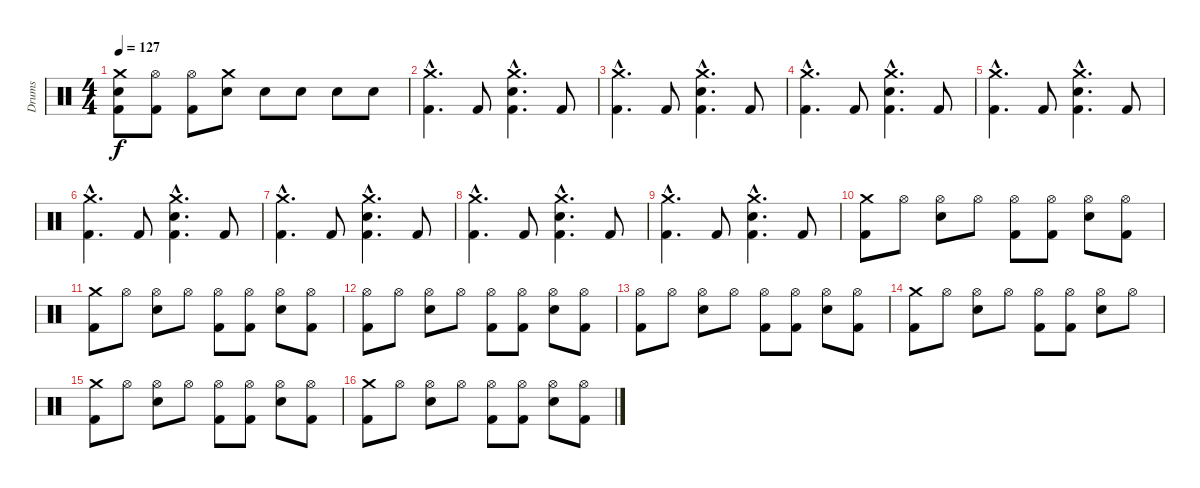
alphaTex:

\track ("Drums" "Drums") {instrument percussion}
\staff {score}
\articulation defaults
\ts (4 4)
\tempo 127
\clef neutral
\ks c
("Kick (hit) 2" "Electric Snare (hit)" "Crash medium (hit)").8{dy f} ("Kick (hit) 2" "Hi-Hat (open)").8 ("Kick (hit) 2" "Hi-Hat (open)").8 ("Electric Snare (hit)" "Crash medium (hit)").8 "Electric Snare (hit)".8 "Electric Snare (hit)".8 "Electric Snare (hit)".8 "Electric Snare (hit)".8 |
("Kick (hit) 2"{hac} "Crash medium (hit)"{hac}).4{d} "Kick (hit) 2".8 ("Kick (hit) 2"{hac} "Electric Snare (hit)"{hac} "Crash medium (hit)"{hac}).4{d} "Kick (hit) 2".8 |
("Kick (hit) 2"{hac} "Crash medium (hit)"{hac}).4{d} "Kick (hit) 2".8 ("Kick (hit) 2"{hac} "Electric Snare (hit)"{hac} "Crash medium (hit)"{hac}).4{d} "Kick (hit) 2".8 |
("Kick (hit) 2"{hac} "Crash medium (hit)"{hac}).4{d} "Kick (hit) 2".8 ("Kick (hit) 2"{hac} "Electric Snare (hit)"{hac} "Crash medium (hit)"{hac}).4{d} "Kick (hit) 2".8 |
("Kick (hit) 2"{hac} "Crash medium (hit)"{hac}).4{d} "Kick (hit) 2".8 ("Kick (hit) 2"{hac} "Electric Snare (hit)"{hac} "Crash medium (hit)"{hac}).4{d} "Kick (hit) 2".8 |
("Kick (hit) 2"{hac} "Crash medium (hit)"{hac}).4{d} "Kick (hit) 2".8 ("Kick (hit) 2"{hac} "Electric Snare (hit)"{hac} "Crash medium (hit)"{hac}).4{d} "Kick (hit) 2".8 |
("Kick (hit) 2"{hac} "Crash medium (hit)"{hac}).4{d} "Kick (hit) 2".8 ("Kick (hit) 2"{hac} "Electric Snare (hit)"{hac} "Crash medium (hit)"{hac}).4{d} "Kick (hit) 2".8 |
("Kick (hit) 2"{hac} "Crash medium (hit)"{hac}).4{d} "Kick (hit) 2".8 ("Kick (hit) 2"{hac} "Electric Snare (hit)"{hac} "Crash medium (hit)"{hac}).4{d} "Kick (hit) 2".8 |
("Kick (hit) 2"{hac} "Crash medium (hit)"{hac}).4{d} "Kick (hit) 2".8 ("Kick (hit) 2"{hac} "Electric Snare (hit)"{hac} "Crash medium (hit)"{hac}).4{d} "Kick (hit) 2".8 |
("Kick (hit) 2" "Crash medium (hit)").8 "Hi-Hat (open)".8 ("Electric Snare (hit)" "Hi-Hat (open)").8 "Hi-Hat (open)".8 ("Kick (hit) 2" "Hi-Hat (open)").8 ("Kick (hit) 2" "Hi-Hat (open)").8 ("Electric Snare (hit)" "Hi-Hat (open)").8 ("Kick (hit) 2" "Hi-Hat (open)").8 |
("Kick (hit) 2" "Crash medium (hit)").8 "Hi-Hat (open)".8 ("Electric Snare (hit)" "Hi-Hat (open)").8 "Hi-Hat (open)".8 ("Kick (hit) 2" "Hi-Hat (open)").8 ("Kick (hit) 2" "Hi-Hat (open)").8 ("Electric Snare (hit)" "Hi-Hat (open)").8 ("Kick (hit) 2" "Hi-Hat (open)").8 |
("Kick (hit) 2" "Hi-Hat (open)").8 "Hi-Hat (open)".8 ("Electric Snare (hit)" "Hi-Hat (open)").8 "Hi-Hat (open)".8 ("Kick (hit) 2" "Hi-Hat (open)").8 ("Kick (hit) 2" "Hi-Hat (open)").8 ("Electric Snare (hit)" "Hi-Hat (open)").8 ("Kick (hit) 2" "Hi-Hat (open)").8 |
("Kick (hit) 2" "Hi-Hat (open)").8 "Hi-Hat (open)".8 ("Electric Snare (hit)" "Hi-Hat (open)").8 "Hi-Hat (open)".8 ("Kick (hit) 2" "Hi-Hat (open)").8 ("Kick (hit) 2" "Hi-Hat (open)").8 ("Electric Snare (hit)" "Hi-Hat (open)").8 ("Kick (hit) 2" "Hi-Hat (open)").8 |
("Kick (hit) 2" "Crash medium (hit)").8 "Hi-Hat (open)".8 ("Electric Snare (hit)" "Hi-Hat (open)").8 "Hi-Hat (open)".8 ("Kick (hit) 2" "Hi-Hat (open)").8 ("Kick (hit) 2" "Hi-Hat (open)").8 ("Electric Snare (hit)" "Hi-Hat (open)").8 "Hi-Hat (open)".8 |
("Kick (hit) 2" "Crash medium (hit)").8 "Hi-Hat (open)".8 ("Electric Snare (hit)" "Hi-Hat (open)").8 "Hi-Hat (open)".8 ("Kick (hit) 2" "Hi-Hat (open)").8 ("Kick (hit) 2" "Hi-Hat (open)").8 ("Electric Snare (hit)" "Hi-Hat (open)").8 ("Kick (hit) 2" "Hi-Hat (open)").8 |
("Kick (hit) 2" "Crash medium (hit)").8 "Hi-Hat (open)".8 ("Electric Snare (hit)" "Hi-Hat (open)").8 "Hi-Hat (open)".8 ("Kick (hit) 2" "Hi-Hat (open)").8 ("Kick (hit) 2" "Hi-Hat (open)").8 ("Electric Snare (hit)" "Hi-Hat (open)").8 ("Kick (hit) 2" "Hi-Hat (open)").8
